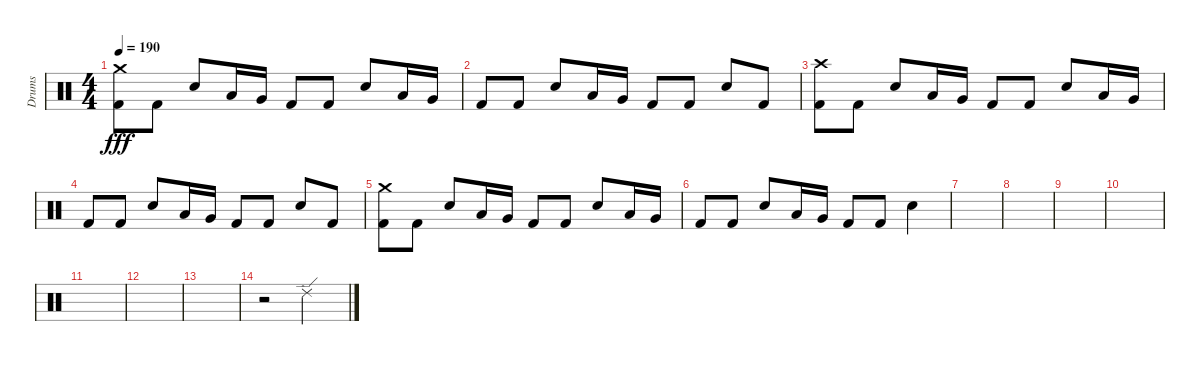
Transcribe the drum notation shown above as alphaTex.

\track ("Drums" "Drums") {instrument percussion}
\staff {score}
\articulation defaults
\ts (4 4)
\tempo 190
\clef neutral
\ks c
("Crash medium (hit)" "Kick (hit) 2").8{dy fff} "Kick (hit) 2".8 "Electric Snare (hit)".8 "Low Tom (hit)".16 "Very Low Tom (hit)".16 "Kick (hit) 2".8 "Kick (hit) 2".8 "Electric Snare (hit)".8 "Low Tom (hit)".16 "Very Low Tom (hit)".16 |
"Kick (hit) 2".8 "Kick (hit) 2".8 "Electric Snare (hit)".8 "Low Tom (hit)".16 "Very Low Tom (hit)".16 "Kick (hit) 2".8 "Kick (hit) 2".8 "Electric Snare (hit)".8 "Kick (hit) 2".8 |
("Crash high (hit)" "Kick (hit) 2").8 "Kick (hit) 2".8 "Electric Snare (hit)".8 "Low Tom (hit)".16 "Very Low Tom (hit)".16 "Kick (hit) 2".8 "Kick (hit) 2".8 "Electric Snare (hit)".8 "Low Tom (hit)".16 "Very Low Tom (hit)".16 |
"Kick (hit) 2".8 "Kick (hit) 2".8 "Electric Snare (hit)".8 "Low Tom (hit)".16 "Very Low Tom (hit)".16 "Kick (hit) 2".8 "Kick (hit) 2".8 "Electric Snare (hit)".8 "Kick (hit) 2".8 |
("Crash medium (hit)" "Kick (hit) 2").8 "Kick (hit) 2".8 "Electric Snare (hit)".8 "Low Tom (hit)".16 "Very Low Tom (hit)".16 "Kick (hit) 2".8 "Kick (hit) 2".8 "Electric Snare (hit)".8 "Low Tom (hit)".16 "Very Low Tom (hit)".16 |
"Kick (hit) 2".8 "Kick (hit) 2".8 "Electric Snare (hit)".8 "Low Tom (hit)".16 "Very Low Tom (hit)".16 "Kick (hit) 2".8 "Kick (hit) 2".8 "Electric Snare (hit)".4 |
|
|
|
|
|
|
|
r.2 "Ride (edge) 2".2
